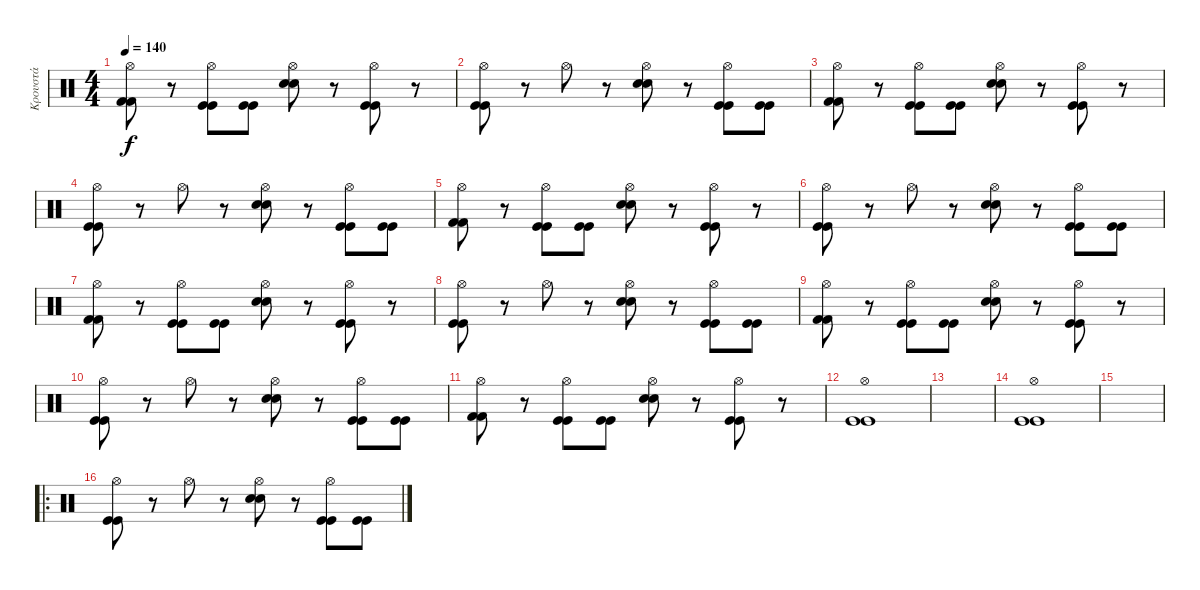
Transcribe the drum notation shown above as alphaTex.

\track ("Κρουστά" "Κρουστά") {instrument percussion}
\staff {score}
\articulation defaults
\ts (4 4)
\tempo 140
\clef neutral
\ks c
("Hi-Hat (open)" "Kick (hit) 2" "Kick (hit) 2").8{dy f} r.8 ("Hi-Hat (open)" "Kick (hit)" "Kick (hit)").8 ("Kick (hit)" "Kick (hit)").8 ("Hi-Hat (open)" "Electric Snare (hit)" "Electric Snare (hit)").8 r.8 ("Hi-Hat (open)" "Kick (hit)" "Kick (hit)").8 r.8 |
("Hi-Hat (open)" "Kick (hit)" "Kick (hit)").8 r.8 "Hi-Hat (open)".8 r.8 ("Hi-Hat (open)" "Electric Snare (hit)" "Electric Snare (hit)").8 r.8 ("Hi-Hat (open)" "Kick (hit)" "Kick (hit)").8 ("Kick (hit)" "Kick (hit)").8 |
("Hi-Hat (open)" "Kick (hit) 2" "Kick (hit) 2").8 r.8 ("Hi-Hat (open)" "Kick (hit)" "Kick (hit)").8 ("Kick (hit)" "Kick (hit)").8 ("Hi-Hat (open)" "Electric Snare (hit)" "Electric Snare (hit)").8 r.8 ("Hi-Hat (open)" "Kick (hit)" "Kick (hit)").8 r.8 |
("Hi-Hat (open)" "Kick (hit)" "Kick (hit)").8 r.8 "Hi-Hat (open)".8 r.8 ("Hi-Hat (open)" "Electric Snare (hit)" "Electric Snare (hit)").8 r.8 ("Hi-Hat (open)" "Kick (hit)" "Kick (hit)").8 ("Kick (hit)" "Kick (hit)").8 |
("Hi-Hat (open)" "Kick (hit) 2" "Kick (hit) 2").8 r.8 ("Hi-Hat (open)" "Kick (hit)" "Kick (hit)").8 ("Kick (hit)" "Kick (hit)").8 ("Hi-Hat (open)" "Electric Snare (hit)" "Electric Snare (hit)").8 r.8 ("Hi-Hat (open)" "Kick (hit)" "Kick (hit)").8 r.8 |
("Hi-Hat (open)" "Kick (hit)" "Kick (hit)").8 r.8 "Hi-Hat (open)".8 r.8 ("Hi-Hat (open)" "Electric Snare (hit)" "Electric Snare (hit)").8 r.8 ("Hi-Hat (open)" "Kick (hit)" "Kick (hit)").8 ("Kick (hit)" "Kick (hit)").8 |
("Hi-Hat (open)" "Kick (hit) 2" "Kick (hit) 2").8 r.8 ("Hi-Hat (open)" "Kick (hit)" "Kick (hit)").8 ("Kick (hit)" "Kick (hit)").8 ("Hi-Hat (open)" "Electric Snare (hit)" "Electric Snare (hit)").8 r.8 ("Hi-Hat (open)" "Kick (hit)" "Kick (hit)").8 r.8 |
("Hi-Hat (open)" "Kick (hit)" "Kick (hit)").8 r.8 "Hi-Hat (open)".8 r.8 ("Hi-Hat (open)" "Electric Snare (hit)" "Electric Snare (hit)").8 r.8 ("Hi-Hat (open)" "Kick (hit)" "Kick (hit)").8 ("Kick (hit)" "Kick (hit)").8 |
("Hi-Hat (open)" "Kick (hit) 2" "Kick (hit) 2").8 r.8 ("Hi-Hat (open)" "Kick (hit)" "Kick (hit)").8 ("Kick (hit)" "Kick (hit)").8 ("Hi-Hat (open)" "Electric Snare (hit)" "Electric Snare (hit)").8 r.8 ("Hi-Hat (open)" "Kick (hit)" "Kick (hit)").8 r.8 |
("Hi-Hat (open)" "Kick (hit)" "Kick (hit)").8 r.8 "Hi-Hat (open)".8 r.8 ("Hi-Hat (open)" "Electric Snare (hit)" "Electric Snare (hit)").8 r.8 ("Hi-Hat (open)" "Kick (hit)" "Kick (hit)").8 ("Kick (hit)" "Kick (hit)").8 |
("Hi-Hat (open)" "Kick (hit) 2" "Kick (hit) 2").8 r.8 ("Hi-Hat (open)" "Kick (hit)" "Kick (hit)").8 ("Kick (hit)" "Kick (hit)").8 ("Hi-Hat (open)" "Electric Snare (hit)" "Electric Snare (hit)").8 r.8 ("Hi-Hat (open)" "Kick (hit)" "Kick (hit)").8 r.8 |
("Hi-Hat (open)" "Kick (hit)" "Kick (hit)").1 |
|
("Hi-Hat (open)" "Kick (hit)" "Kick (hit)").1 |
|
\ro
("Hi-Hat (open)" "Kick (hit)" "Kick (hit)").8 r.8 "Hi-Hat (open)".8 r.8 ("Hi-Hat (open)" "Electric Snare (hit)" "Electric Snare (hit)").8 r.8 ("Hi-Hat (open)" "Kick (hit)" "Kick (hit)").8 ("Kick (hit)" "Kick (hit)").8
